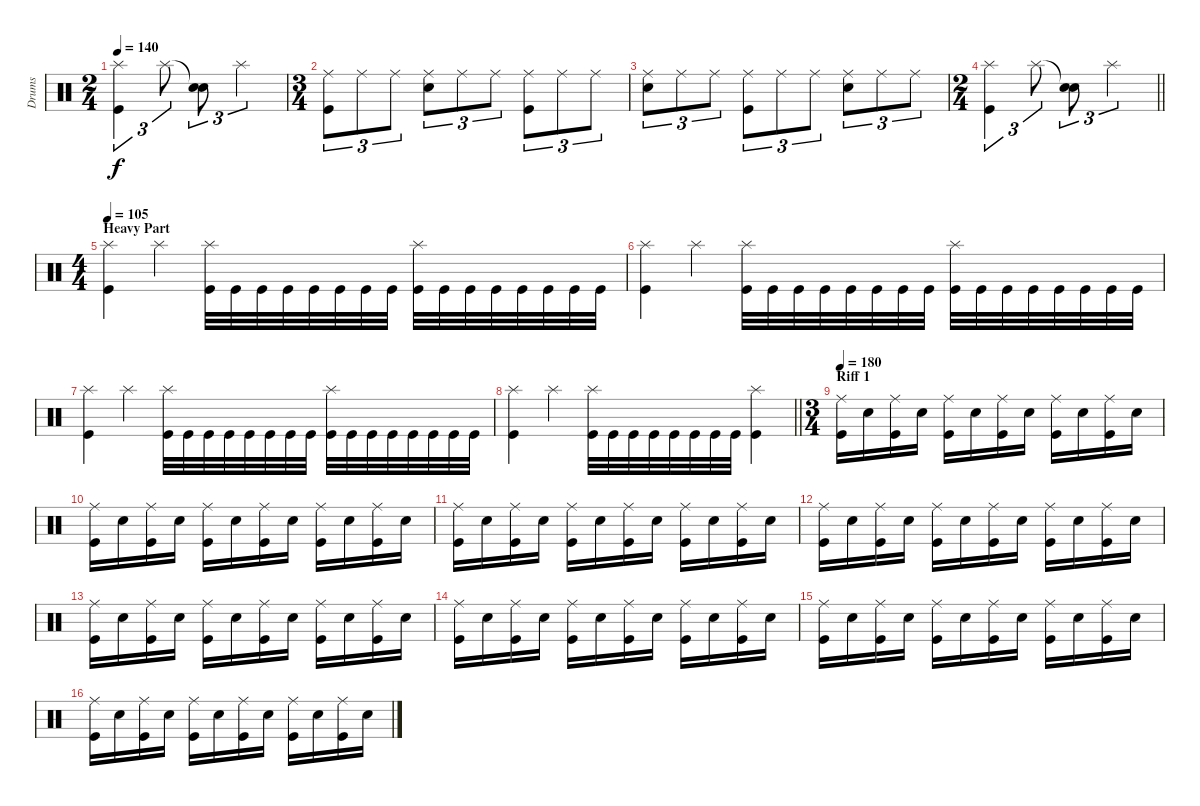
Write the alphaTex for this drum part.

\track ("Drums" "Drums") {instrument percussion}
\staff {score}
\articulation defaults
\ts (2 4)
\tempo 140
\clef neutral
\ks c
("Splash (hit)" "Kick (hit)").4{tu (3 2) dy f} "Splash (hit)".8{tu (3 2)} ("Snare (hit)"{t} "Electric Snare (hit)").8{tu (3 2)} "Splash (hit)".4{tu (3 2)} |
\ts (3 4)
("Ride (middle)" "Kick (hit)").8{tu (3 2)} "Ride (middle)".8{tu (3 2)} "Ride (middle)".8{tu (3 2)} ("Ride (middle)" "Electric Snare (hit)").8{tu (3 2)} "Ride (middle)".8{tu (3 2)} "Ride (middle)".8{tu (3 2)} ("Ride (middle)" "Kick (hit)").8{tu (3 2)} "Ride (middle)".8{tu (3 2)} "Ride (middle)".8{tu (3 2)} |
("Ride (middle)" "Electric Snare (hit)").8{tu (3 2)} "Ride (middle)".8{tu (3 2)} "Ride (middle)".8{tu (3 2)} ("Ride (middle)" "Kick (hit)").8{tu (3 2)} "Ride (middle)".8{tu (3 2)} "Ride (middle)".8{tu (3 2)} ("Ride (middle)" "Electric Snare (hit)").8{tu (3 2)} "Ride (middle)".8{tu (3 2)} "Ride (middle)".8{tu (3 2)} |
\ts (2 4)
\barLineRight lightlight
("Splash (hit)" "Kick (hit)").4{tu (3 2)} "Splash (hit)".8{tu (3 2)} ("Snare (hit)"{t} "Electric Snare (hit)").8{tu (3 2)} "Splash (hit)".4{tu (3 2)} |
\ts (4 4)
\section ("" "Heavy Part")
\tempo 105
("Splash (hit)" "Kick (hit)").4 "Splash (hit)".4 ("Splash (hit)" "Kick (hit)").32 "Kick (hit)".32 "Kick (hit)".32 "Kick (hit)".32 "Kick (hit)".32 "Kick (hit)".32 "Kick (hit)".32 "Kick (hit)".32 ("Splash (hit)" "Kick (hit)").32 "Kick (hit)".32 "Kick (hit)".32 "Kick (hit)".32 "Kick (hit)".32 "Kick (hit)".32 "Kick (hit)".32 "Kick (hit)".32 |
("Splash (hit)" "Kick (hit)").4 "Splash (hit)".4 ("Splash (hit)" "Kick (hit)").32 "Kick (hit)".32 "Kick (hit)".32 "Kick (hit)".32 "Kick (hit)".32 "Kick (hit)".32 "Kick (hit)".32 "Kick (hit)".32 ("Splash (hit)" "Kick (hit)").32 "Kick (hit)".32 "Kick (hit)".32 "Kick (hit)".32 "Kick (hit)".32 "Kick (hit)".32 "Kick (hit)".32 "Kick (hit)".32 |
("Splash (hit)" "Kick (hit)").4 "Splash (hit)".4 ("Splash (hit)" "Kick (hit)").32 "Kick (hit)".32 "Kick (hit)".32 "Kick (hit)".32 "Kick (hit)".32 "Kick (hit)".32 "Kick (hit)".32 "Kick (hit)".32 ("Splash (hit)" "Kick (hit)").32 "Kick (hit)".32 "Kick (hit)".32 "Kick (hit)".32 "Kick (hit)".32 "Kick (hit)".32 "Kick (hit)".32 "Kick (hit)".32 |
\barLineRight lightlight
("Splash (hit)" "Kick (hit)").4 "Splash (hit)".4 ("Splash (hit)" "Kick (hit)").32 "Kick (hit)".32 "Kick (hit)".32 "Kick (hit)".32 "Kick (hit)".32 "Kick (hit)".32 "Kick (hit)".32 "Kick (hit)".32 ("Splash (hit)" "Kick (hit)").4 |
\ts (3 4)
\section ("" "Riff 1")
\tempo 180
("Ride (middle)" "Kick (hit)").16 "Electric Snare (hit)".16 ("Ride (middle)" "Kick (hit)").16 "Electric Snare (hit)".16 ("Ride (middle)" "Kick (hit)").16 "Electric Snare (hit)".16 ("Ride (middle)" "Kick (hit)").16 "Electric Snare (hit)".16 ("Ride (middle)" "Kick (hit)").16 "Electric Snare (hit)".16 ("Ride (middle)" "Kick (hit)").16 "Electric Snare (hit)".16 |
("Ride (middle)" "Kick (hit)").16 "Electric Snare (hit)".16 ("Ride (middle)" "Kick (hit)").16 "Electric Snare (hit)".16 ("Ride (middle)" "Kick (hit)").16 "Electric Snare (hit)".16 ("Ride (middle)" "Kick (hit)").16 "Electric Snare (hit)".16 ("Ride (middle)" "Kick (hit)").16 "Electric Snare (hit)".16 ("Ride (middle)" "Kick (hit)").16 "Electric Snare (hit)".16 |
("Ride (middle)" "Kick (hit)").16 "Electric Snare (hit)".16 ("Ride (middle)" "Kick (hit)").16 "Electric Snare (hit)".16 ("Ride (middle)" "Kick (hit)").16 "Electric Snare (hit)".16 ("Ride (middle)" "Kick (hit)").16 "Electric Snare (hit)".16 ("Ride (middle)" "Kick (hit)").16 "Electric Snare (hit)".16 ("Ride (middle)" "Kick (hit)").16 "Electric Snare (hit)".16 |
("Ride (middle)" "Kick (hit)").16 "Electric Snare (hit)".16 ("Ride (middle)" "Kick (hit)").16 "Electric Snare (hit)".16 ("Ride (middle)" "Kick (hit)").16 "Electric Snare (hit)".16 ("Ride (middle)" "Kick (hit)").16 "Electric Snare (hit)".16 ("Ride (middle)" "Kick (hit)").16 "Electric Snare (hit)".16 ("Ride (middle)" "Kick (hit)").16 "Electric Snare (hit)".16 |
("Ride (middle)" "Kick (hit)").16 "Electric Snare (hit)".16 ("Ride (middle)" "Kick (hit)").16 "Electric Snare (hit)".16 ("Ride (middle)" "Kick (hit)").16 "Electric Snare (hit)".16 ("Ride (middle)" "Kick (hit)").16 "Electric Snare (hit)".16 ("Ride (middle)" "Kick (hit)").16 "Electric Snare (hit)".16 ("Ride (middle)" "Kick (hit)").16 "Electric Snare (hit)".16 |
("Ride (middle)" "Kick (hit)").16 "Electric Snare (hit)".16 ("Ride (middle)" "Kick (hit)").16 "Electric Snare (hit)".16 ("Ride (middle)" "Kick (hit)").16 "Electric Snare (hit)".16 ("Ride (middle)" "Kick (hit)").16 "Electric Snare (hit)".16 ("Ride (middle)" "Kick (hit)").16 "Electric Snare (hit)".16 ("Ride (middle)" "Kick (hit)").16 "Electric Snare (hit)".16 |
("Ride (middle)" "Kick (hit)").16 "Electric Snare (hit)".16 ("Ride (middle)" "Kick (hit)").16 "Electric Snare (hit)".16 ("Ride (middle)" "Kick (hit)").16 "Electric Snare (hit)".16 ("Ride (middle)" "Kick (hit)").16 "Electric Snare (hit)".16 ("Ride (middle)" "Kick (hit)").16 "Electric Snare (hit)".16 ("Ride (middle)" "Kick (hit)").16 "Electric Snare (hit)".16 |
("Ride (middle)" "Kick (hit)").16 "Electric Snare (hit)".16 ("Ride (middle)" "Kick (hit)").16 "Electric Snare (hit)".16 ("Ride (middle)" "Kick (hit)").16 "Electric Snare (hit)".16 ("Ride (middle)" "Kick (hit)").16 "Electric Snare (hit)".16 ("Ride (middle)" "Kick (hit)").16 "Electric Snare (hit)".16 ("Ride (middle)" "Kick (hit)").16 "Electric Snare (hit)".16
